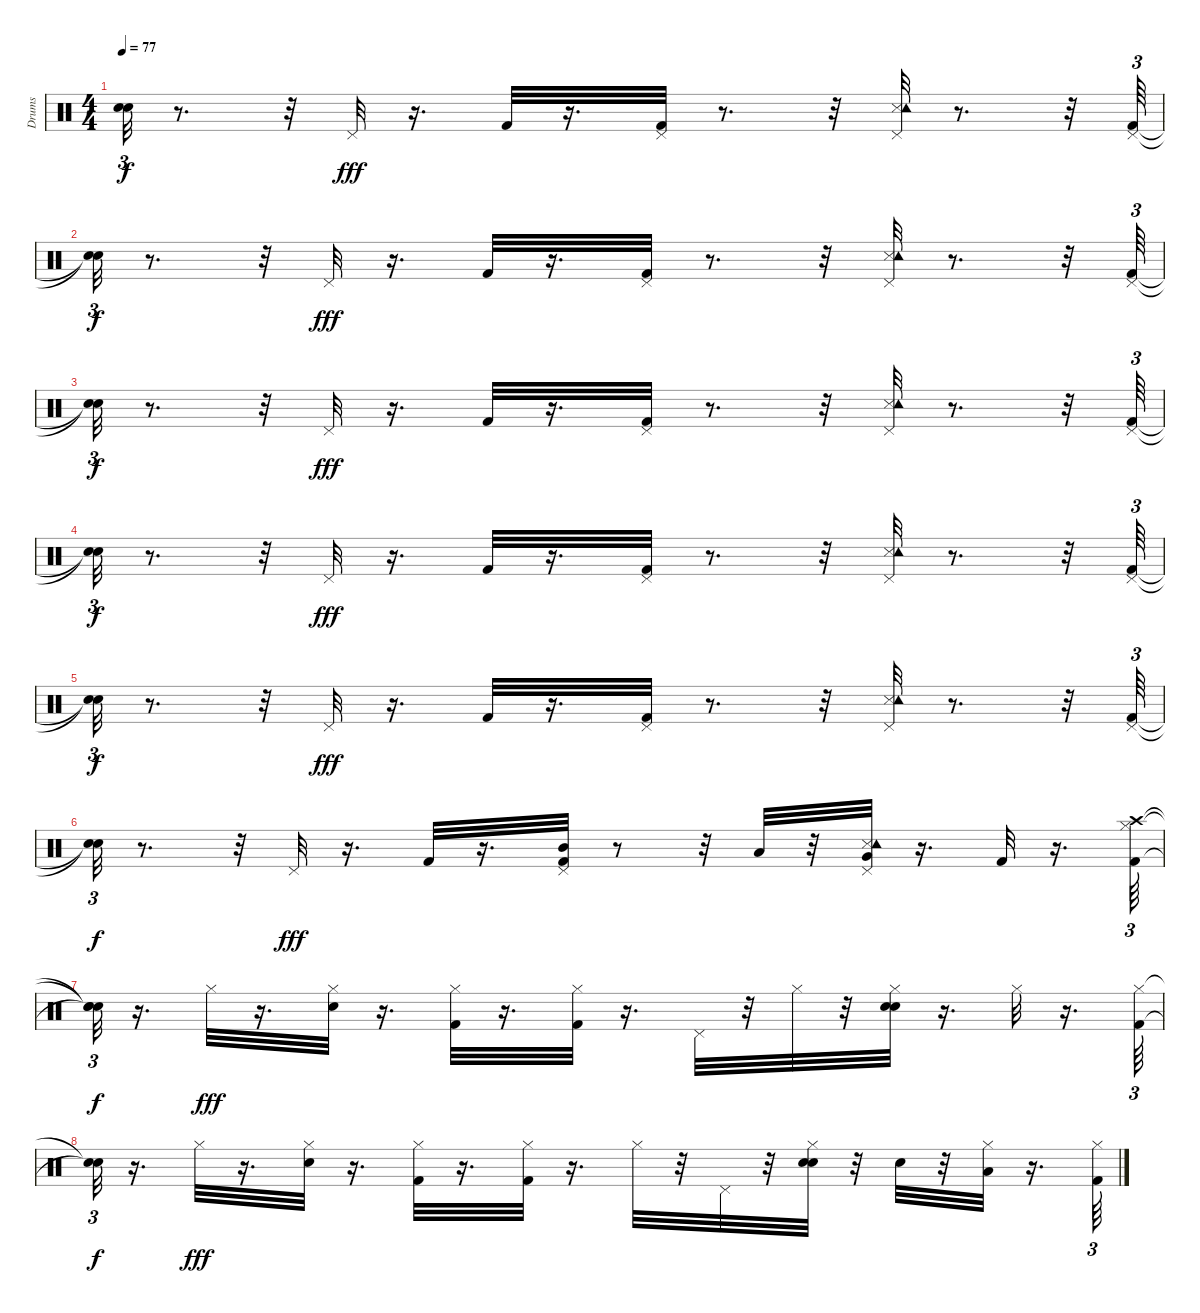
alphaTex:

\track ("Drums   " "Drums   ") {instrument percussion}
\staff {score}
\articulation defaults
\ts (4 4)
\tempo 77
\clef neutral
\ks c
("Snare (hit)"{t} "Snare (hit)"{t}).32{tu (3 2) dy f} r.8{d} r.32 "Pedal Hi-Hat (hit)".32{dy fff} r.16{d} "Kick (hit) 2".32 r.16{d} ("Kick (hit) 2" "Pedal Hi-Hat (hit)").32 r.8{d} r.32 ("Snare (side stick) 3" "Pedal Hi-Hat (hit)" "Tambourine (hit)").32 r.8{d} r.32 ("Kick (hit) 2" "Pedal Hi-Hat (hit)").64{tu (3 2)} |
("Snare (hit)"{t} "Snare (hit)"{t}).32{tu (3 2) dy f} r.8{d} r.32 "Pedal Hi-Hat (hit)".32{dy fff} r.16{d} "Kick (hit) 2".32 r.16{d} ("Kick (hit) 2" "Pedal Hi-Hat (hit)").32 r.8{d} r.32 ("Snare (side stick) 3" "Pedal Hi-Hat (hit)" "Tambourine (hit)").32 r.8{d} r.32 ("Kick (hit) 2" "Pedal Hi-Hat (hit)").64{tu (3 2)} |
("Snare (hit)"{t} "Snare (hit)"{t}).32{tu (3 2) dy f} r.8{d} r.32 "Pedal Hi-Hat (hit)".32{dy fff} r.16{d} "Kick (hit) 2".32 r.16{d} ("Kick (hit) 2" "Pedal Hi-Hat (hit)").32 r.8{d} r.32 ("Snare (side stick) 3" "Pedal Hi-Hat (hit)" "Tambourine (hit)").32 r.8{d} r.32 ("Kick (hit) 2" "Pedal Hi-Hat (hit)").64{tu (3 2)} |
("Snare (hit)"{t} "Snare (hit)"{t}).32{tu (3 2) dy f} r.8{d} r.32 "Pedal Hi-Hat (hit)".32{dy fff} r.16{d} "Kick (hit) 2".32 r.16{d} ("Kick (hit) 2" "Pedal Hi-Hat (hit)").32 r.8{d} r.32 ("Snare (side stick) 3" "Pedal Hi-Hat (hit)" "Tambourine (hit)").32 r.8{d} r.32 ("Kick (hit) 2" "Pedal Hi-Hat (hit)").64{tu (3 2)} |
("Snare (hit)"{t} "Snare (hit)"{t}).32{tu (3 2) dy f} r.8{d} r.32 "Pedal Hi-Hat (hit)".32{dy fff} r.16{d} "Kick (hit) 2".32 r.16{d} ("Kick (hit) 2" "Pedal Hi-Hat (hit)").32 r.8{d} r.32 ("Snare (side stick) 3" "Pedal Hi-Hat (hit)" "Tambourine (hit)").32 r.8{d} r.32 ("Kick (hit) 2" "Pedal Hi-Hat (hit)").64{tu (3 2)} |
("Snare (hit)"{t} "Snare (hit)"{t}).32{tu (3 2) dy f} r.8{d} r.32 "Pedal Hi-Hat (hit)".32{dy fff} r.16{d} "Kick (hit) 2".32 r.16{d} ("Kick (hit) 2" "Pedal Hi-Hat (hit)" "Mid Tom (hit)").32 r.8 r.32 "Low Tom (hit)".32 r.32 ("Snare (side stick) 3" "Very Low Tom (hit)" "Pedal Hi-Hat (hit)" "Tambourine (hit)").32 r.16{d} "Kick (hit) 2".32 r.16{d} ("Kick (hit) 2" "Hi-Hat (closed)" "Crash high (hit)").64{tu (3 2)} |
("Snare (hit)"{t} "Snare (hit)"{t} "Snare (hit)"{t}).32{tu (3 2) dy f} r.16{d} "Hi-Hat (closed)".32{dy fff} r.16{d} ("Snare (hit) 2" "Hi-Hat (closed)").32 r.16{d} ("Kick (hit) 2" "Hi-Hat (closed)").32 r.16{d} ("Kick (hit) 2" "Hi-Hat (closed)").32 r.16{d} "Pedal Hi-Hat (hit)".32 r.32 "Hi-Hat (closed)".32 r.32 ("Snare (hit) 2" "Hand Clap (hit)" "Hi-Hat (closed)").32 r.16{d} "Hi-Hat (closed)".32 r.16{d} ("Kick (hit) 2" "Hi-Hat (closed)").64{tu (3 2)} |
("Snare (hit)"{t} "Snare (hit)"{t}).32{tu (3 2) dy f} r.16{d} "Hi-Hat (closed)".32{dy fff} r.16{d} ("Snare (hit) 2" "Hi-Hat (closed)").32 r.16{d} ("Kick (hit) 2" "Hi-Hat (closed)").32 r.16{d} ("Kick (hit) 2" "Hi-Hat (closed)").32 r.16{d} "Hi-Hat (closed)".32 r.32 "Pedal Hi-Hat (hit)".32 r.32 ("Snare (hit) 2" "Hand Clap (hit)" "Hi-Hat (closed)").32 r.32 "Snare (hit) 2".32 r.32 ("Hi-Hat (closed)" "Low Tom (hit)").32 r.16{d} ("Kick (hit) 2" "Hi-Hat (closed)").64{tu (3 2)}
